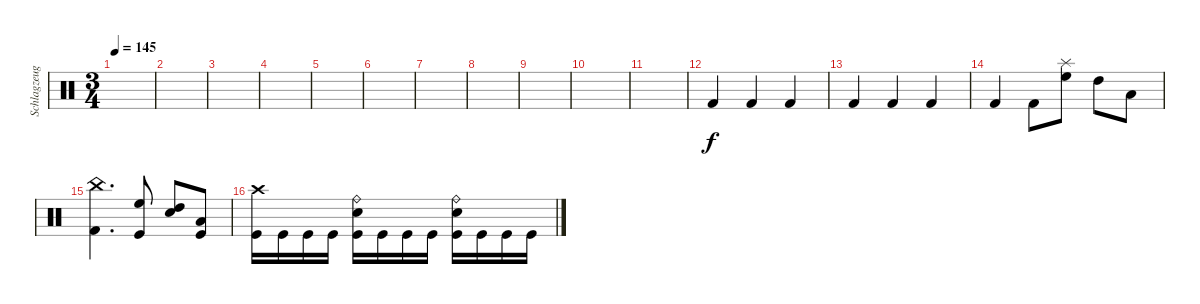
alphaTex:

\track ("Schlagzeug" "Schlagzeug") {instrument percussion}
\staff {score}
\articulation defaults
\ts (3 4)
\tempo 145
\clef neutral
\ks c
|
|
|
|
|
|
|
|
|
|
|
"Kick (hit) 2".4 "Kick (hit) 2".4 "Kick (hit) 2".4 |
"Kick (hit) 2".4 "Kick (hit) 2".4 "Kick (hit) 2".4 |
"Kick (hit) 2".4 "Kick (hit) 2".8 ("Splash (hit)" "High Floor Tom (hit)").8 "High Tom (hit)".8 "Low Tom (hit)".8 |
("China (hit)" "Kick (hit) 2").4{d} ("High Floor Tom (hit)" "Kick (hit)").8 ("High Tom (hit)" "Snare (hit) 2").8 ("Low Tom (hit)" "Kick (hit)").8 |
("Crash high (hit)" "Kick (hit)").16 "Kick (hit)".16 "Kick (hit)".16 "Kick (hit)".16 ("Ride (bell)" "Snare (hit) 2" "Kick (hit)").16 "Kick (hit)".16 "Kick (hit)".16 "Kick (hit)".16 ("Ride (bell)" "Snare (hit) 2" "Kick (hit)").16 "Kick (hit)".16 "Kick (hit)".16 "Kick (hit)".16
